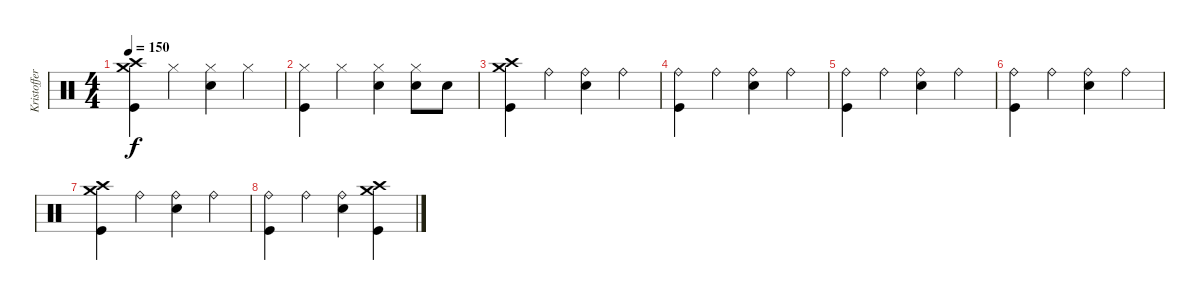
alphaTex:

\track ("Kristoffer Söderström - Drums" "Kristoffer") {instrument percussion}
\staff {score}
\articulation defaults
\ts (4 4)
\tempo 150
\clef neutral
\ks c
("Crash medium (hit)" "Crash high (hit)" "Kick (hit)").4{dy f} "Hi-Hat (closed)".4 ("Hi-Hat (closed)" "Snare (hit) 2").4 "Hi-Hat (closed)".4 |
("Hi-Hat (closed)" "Kick (hit)").4 "Hi-Hat (closed)".4 ("Hi-Hat (closed)" "Snare (hit) 2").4 ("Hi-Hat (closed)" "Snare (hit) 2").8 "Snare (hit) 2".8 |
("Crash medium (hit)" "Crash high (hit)" "Kick (hit)").4 "Ride (bell)".4 ("Ride (bell)" "Snare (hit) 2").4 "Ride (bell)".4 |
("Ride (bell)" "Kick (hit)").4 "Ride (bell)".4 ("Ride (bell)" "Snare (hit) 2").4 "Ride (bell)".4 |
("Ride (bell)" "Kick (hit)").4 "Ride (bell)".4 ("Ride (bell)" "Snare (hit) 2").4 "Ride (bell)".4 |
("Ride (bell)" "Kick (hit)").4 "Ride (bell)".4 ("Ride (bell)" "Snare (hit) 2").4 "Ride (bell)".4 |
("Crash medium (hit)" "Crash high (hit)" "Kick (hit)").4 "Ride (bell)".4 ("Ride (bell)" "Snare (hit) 2").4 "Ride (bell)".4 |
("Ride (bell)" "Kick (hit)").4 "Ride (bell)".4 ("Ride (bell)" "Snare (hit) 2").4 ("Crash medium (hit)" "Crash high (hit)" "Kick (hit)").4
